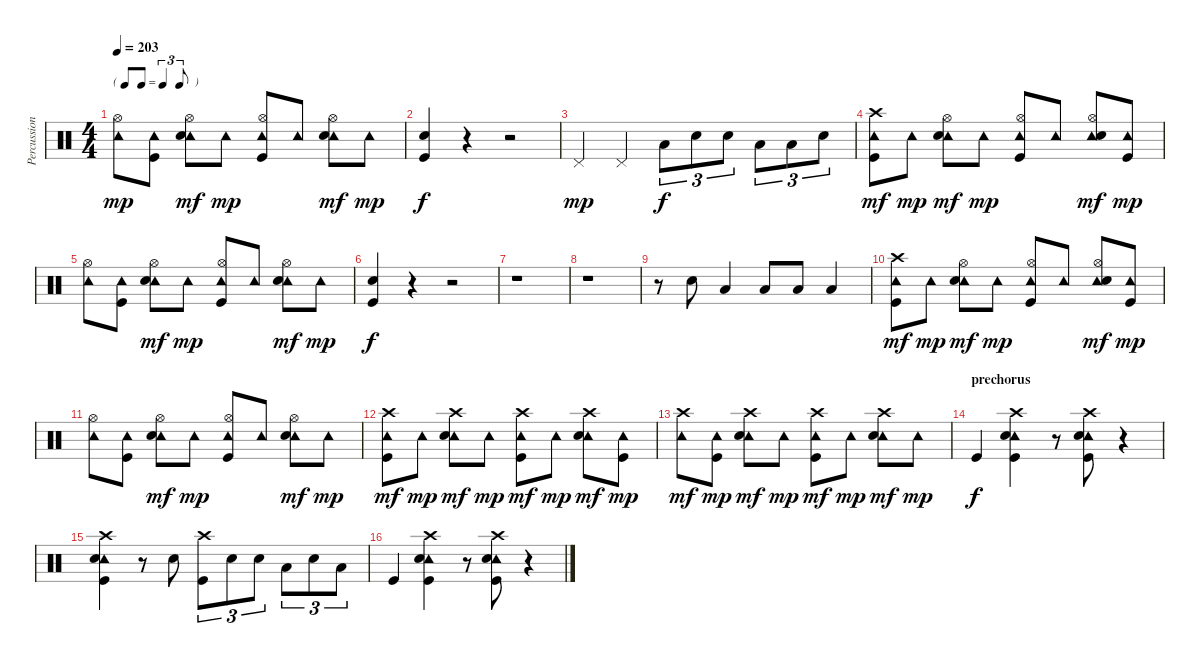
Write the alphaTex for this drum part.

\track ("Percussion" "Percussion") {instrument percussion}
\staff {score}
\articulation defaults
\ts (4 4)
\tf triplet8th
\tempo 203
\clef neutral
\ks c
("Tambourine (hit)" "Hi-Hat (open)").8{dy mp} ("Tambourine (hit)" "Kick (hit)").8 ("Tambourine (hit)" "Hi-Hat (open)" "Snare (hit) 2").8{dy mf} "Tambourine (hit)".8{dy mp} ("Tambourine (hit)" "Hi-Hat (open)" "Kick (hit)").8 "Tambourine (hit)".8 ("Tambourine (hit)" "Hi-Hat (open)" "Snare (hit) 2").8{dy mf} "Tambourine (hit)".8{dy mp} |
("Snare (hit) 2" "Kick (hit)").4{dy f} r.4 r.2 |
"Pedal Hi-Hat (hit)".4{dy mp} "Pedal Hi-Hat (hit)".4 "Low Tom (hit)".8{tu (3 2) dy f} "Snare (hit) 2".8{tu (3 2)} "Snare (hit) 2".8{tu (3 2)} "Low Tom (hit)".8{tu (3 2)} "Low Floor Tom (hit)".8{tu (3 2)} "Snare (hit) 2".8{tu (3 2)} |
("Tambourine (hit)" "Crash high (hit)" "Kick (hit)").8{dy mf} "Tambourine (hit)".8{dy mp} ("Tambourine (hit)" "Hi-Hat (open)" "Snare (hit) 2").8{dy mf} "Tambourine (hit)".8{dy mp} ("Tambourine (hit)" "Hi-Hat (open)" "Kick (hit)").8 "Tambourine (hit)".8 ("Tambourine (hit)" "Hi-Hat (open)" "Snare (hit) 2").8{dy mf} ("Tambourine (hit)" "Kick (hit)").8{dy mp} |
("Tambourine (hit)" "Hi-Hat (open)").8 ("Tambourine (hit)" "Kick (hit)").8 ("Tambourine (hit)" "Hi-Hat (open)" "Snare (hit) 2").8{dy mf} "Tambourine (hit)".8{dy mp} ("Tambourine (hit)" "Hi-Hat (open)" "Kick (hit)").8 "Tambourine (hit)".8 ("Tambourine (hit)" "Hi-Hat (open)" "Snare (hit) 2").8{dy mf} "Tambourine (hit)".8{dy mp} |
("Snare (hit) 2" "Kick (hit)").4{dy f} r.4 r.2 |
r.1 |
r.1 |
r.8 "Snare (hit) 2".8 "Low Floor Tom (hit)".4 "Low Floor Tom (hit)".8 "Low Floor Tom (hit)".8 "Low Floor Tom (hit)".4 |
("Tambourine (hit)" "Crash high (hit)" "Kick (hit)").8{dy mf} "Tambourine (hit)".8{dy mp} ("Tambourine (hit)" "Hi-Hat (open)" "Snare (hit) 2").8{dy mf} "Tambourine (hit)".8{dy mp} ("Tambourine (hit)" "Hi-Hat (open)" "Kick (hit)").8 "Tambourine (hit)".8 ("Tambourine (hit)" "Hi-Hat (open)" "Snare (hit) 2").8{dy mf} ("Tambourine (hit)" "Kick (hit)").8{dy mp} |
("Tambourine (hit)" "Hi-Hat (open)").8 ("Tambourine (hit)" "Kick (hit)").8 ("Tambourine (hit)" "Hi-Hat (open)" "Snare (hit) 2").8{dy mf} "Tambourine (hit)".8{dy mp} ("Tambourine (hit)" "Hi-Hat (open)" "Kick (hit)").8 "Tambourine (hit)".8 ("Tambourine (hit)" "Hi-Hat (open)" "Snare (hit) 2").8{dy mf} "Tambourine (hit)".8{dy mp} |
("Tambourine (hit)" "Crash high (hit)" "Kick (hit)").8{dy mf} "Tambourine (hit)".8{dy mp} ("Tambourine (hit)" "Crash high (hit)" "Snare (hit) 2").8{dy mf} "Tambourine (hit)".8{dy mp} ("Tambourine (hit)" "Crash high (hit)" "Kick (hit)").8{dy mf} "Tambourine (hit)".8{dy mp} ("Tambourine (hit)" "Crash high (hit)" "Snare (hit) 2").8{dy mf} ("Tambourine (hit)" "Kick (hit)").8{dy mp} |
("Tambourine (hit)" "Crash high (hit)").8{dy mf} ("Tambourine (hit)" "Kick (hit)").8{dy mp} ("Tambourine (hit)" "Crash high (hit)" "Snare (hit) 2").8{dy mf} "Tambourine (hit)".8{dy mp} ("Tambourine (hit)" "Crash high (hit)" "Kick (hit)").8{dy mf} "Tambourine (hit)".8{dy mp} ("Tambourine (hit)" "Crash high (hit)" "Snare (hit) 2").8{dy mf} "Tambourine (hit)".8{dy mp} |
\section ("" "prechorus")
"Kick (hit)".4{dy f} ("Tambourine (hit)" "Crash high (hit)" "Snare (hit) 2" "Kick (hit)").4 r.8 ("Tambourine (hit)" "Crash high (hit)" "Snare (hit) 2" "Kick (hit)").8 r.4 |
("Tambourine (hit)" "Crash high (hit)" "Snare (hit) 2" "Kick (hit)").4 r.8 "Snare (hit) 2".8 ("Crash high (hit)" "Kick (hit)").8{tu (3 2)} "Snare (hit) 2".8{tu (3 2)} "Snare (hit) 2".8{tu (3 2)} "Low Tom (hit)".8{tu (3 2)} "Snare (hit) 2".8{tu (3 2)} "Low Tom (hit)".8{tu (3 2)} |
"Kick (hit)".4 ("Tambourine (hit)" "Crash high (hit)" "Snare (hit) 2" "Kick (hit)").4 r.8 ("Tambourine (hit)" "Crash high (hit)" "Snare (hit) 2" "Kick (hit)").8 r.4
